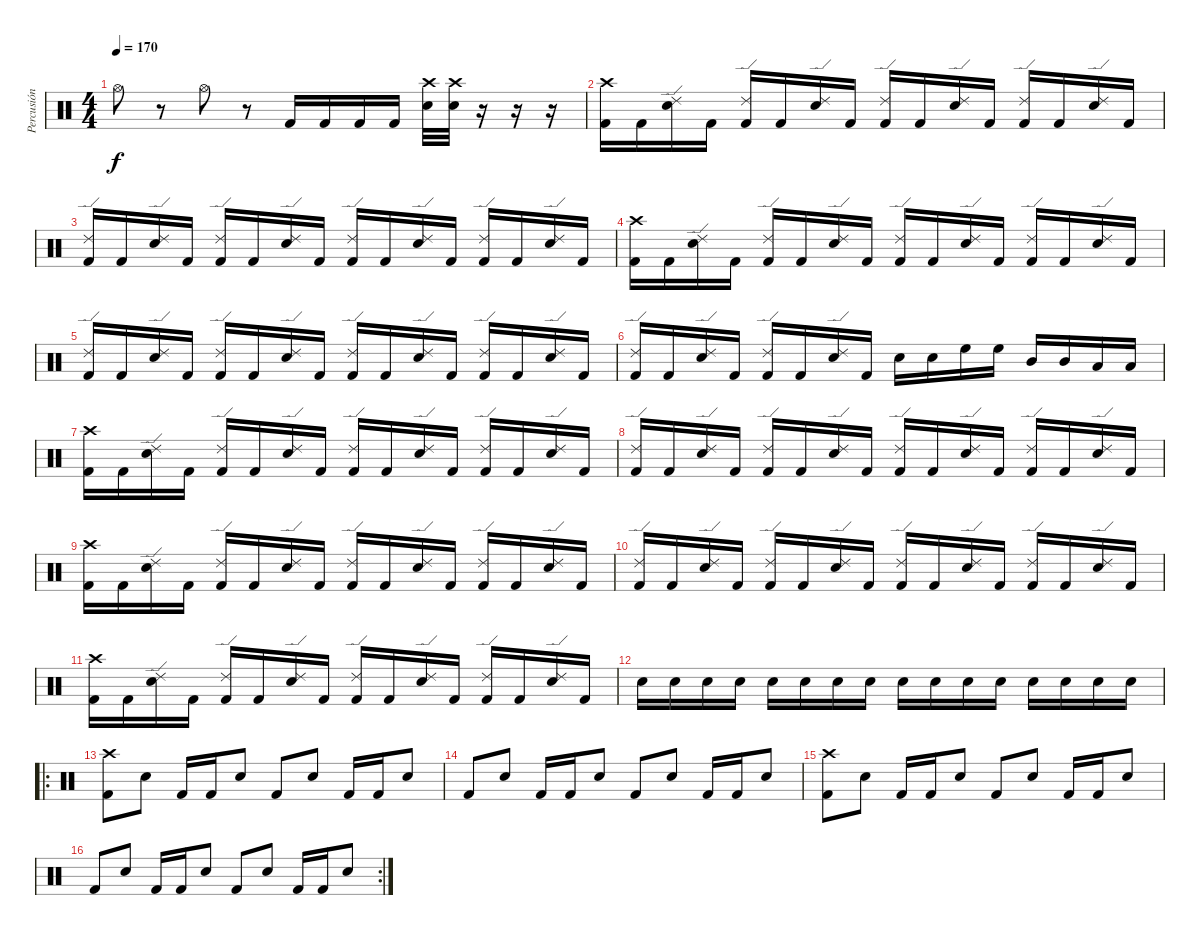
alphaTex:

\track ("Percusión" "Percusión") {instrument percussion}
\staff {score}
\articulation defaults
\ts (4 4)
\tempo 170
\clef neutral
\ks c "Hi-Hat (open)".8{dy f}
r.8 "Hi-Hat (open)".8 r.8 "Kick (hit) 2".16 "Kick (hit) 2".16 "Kick (hit) 2".16 "Kick (hit) 2".16 ("Crash high (hit)" "Electric Snare (hit)").32 ("Crash high (hit)" "Electric Snare (hit)").32 r.16 r.16 r.16 |
("Crash high (hit)" "Kick (hit) 2").16 "Kick (hit) 2".16 ("Ride (edge) 2" "Electric Snare (hit)").16 "Kick (hit) 2".16 ("Ride (edge) 2" "Kick (hit) 2").16 "Kick (hit) 2".16 ("Ride (edge) 2" "Electric Snare (hit)").16 "Kick (hit) 2".16 ("Ride (edge) 2" "Kick (hit) 2").16 "Kick (hit) 2".16 ("Ride (edge) 2" "Electric Snare (hit)").16 "Kick (hit) 2".16 ("Ride (edge) 2" "Kick (hit) 2").16 "Kick (hit) 2".16 ("Ride (edge) 2" "Electric Snare (hit)").16 "Kick (hit) 2".16 |
("Ride (edge) 2" "Kick (hit) 2").16 "Kick (hit) 2".16 ("Ride (edge) 2" "Electric Snare (hit)").16 "Kick (hit) 2".16 ("Ride (edge) 2" "Kick (hit) 2").16 "Kick (hit) 2".16 ("Ride (edge) 2" "Electric Snare (hit)").16 "Kick (hit) 2".16 ("Ride (edge) 2" "Kick (hit) 2").16 "Kick (hit) 2".16 ("Ride (edge) 2" "Electric Snare (hit)").16 "Kick (hit) 2".16 ("Ride (edge) 2" "Kick (hit) 2").16 "Kick (hit) 2".16 ("Ride (edge) 2" "Electric Snare (hit)").16 "Kick (hit) 2".16 |
("Crash high (hit)" "Kick (hit) 2").16 "Kick (hit) 2".16 ("Ride (edge) 2" "Electric Snare (hit)").16 "Kick (hit) 2".16 ("Ride (edge) 2" "Kick (hit) 2").16 "Kick (hit) 2".16 ("Ride (edge) 2" "Electric Snare (hit)").16 "Kick (hit) 2".16 ("Ride (edge) 2" "Kick (hit) 2").16 "Kick (hit) 2".16 ("Ride (edge) 2" "Electric Snare (hit)").16 "Kick (hit) 2".16 ("Ride (edge) 2" "Kick (hit) 2").16 "Kick (hit) 2".16 ("Ride (edge) 2" "Electric Snare (hit)").16 "Kick (hit) 2".16 |
("Ride (edge) 2" "Kick (hit) 2").16 "Kick (hit) 2".16 ("Ride (edge) 2" "Electric Snare (hit)").16 "Kick (hit) 2".16 ("Ride (edge) 2" "Kick (hit) 2").16 "Kick (hit) 2".16 ("Ride (edge) 2" "Electric Snare (hit)").16 "Kick (hit) 2".16 ("Ride (edge) 2" "Kick (hit) 2").16 "Kick (hit) 2".16 ("Ride (edge) 2" "Electric Snare (hit)").16 "Kick (hit) 2".16 ("Ride (edge) 2" "Kick (hit) 2").16 "Kick (hit) 2".16 ("Ride (edge) 2" "Electric Snare (hit)").16 "Kick (hit) 2".16 |
("Ride (edge) 2" "Kick (hit) 2").16 "Kick (hit) 2".16 ("Ride (edge) 2" "Electric Snare (hit)").16 "Kick (hit) 2".16 ("Ride (edge) 2" "Kick (hit) 2").16 "Kick (hit) 2".16 ("Ride (edge) 2" "Electric Snare (hit)").16 "Kick (hit) 2".16 "Electric Snare (hit)".16 "Electric Snare (hit)".16 "High Floor Tom (hit)".16 "High Floor Tom (hit)".16 "Mid Tom (hit)".16 "Mid Tom (hit)".16 "Low Tom (hit)".16 "Low Tom (hit)".16 |
("Crash high (hit)" "Kick (hit) 2").16 "Kick (hit) 2".16 ("Ride (edge) 2" "Electric Snare (hit)").16 "Kick (hit) 2".16 ("Ride (edge) 2" "Kick (hit) 2").16 "Kick (hit) 2".16 ("Ride (edge) 2" "Electric Snare (hit)").16 "Kick (hit) 2".16 ("Ride (edge) 2" "Kick (hit) 2").16 "Kick (hit) 2".16 ("Ride (edge) 2" "Electric Snare (hit)").16 "Kick (hit) 2".16 ("Ride (edge) 2" "Kick (hit) 2").16 "Kick (hit) 2".16 ("Ride (edge) 2" "Electric Snare (hit)").16 "Kick (hit) 2".16 |
("Ride (edge) 2" "Kick (hit) 2").16 "Kick (hit) 2".16 ("Ride (edge) 2" "Electric Snare (hit)").16 "Kick (hit) 2".16 ("Ride (edge) 2" "Kick (hit) 2").16 "Kick (hit) 2".16 ("Ride (edge) 2" "Electric Snare (hit)").16 "Kick (hit) 2".16 ("Ride (edge) 2" "Kick (hit) 2").16 "Kick (hit) 2".16 ("Ride (edge) 2" "Electric Snare (hit)").16 "Kick (hit) 2".16 ("Ride (edge) 2" "Kick (hit) 2").16 "Kick (hit) 2".16 ("Ride (edge) 2" "Electric Snare (hit)").16 "Kick (hit) 2".16 |
("Crash high (hit)" "Kick (hit) 2").16 "Kick (hit) 2".16 ("Ride (edge) 2" "Electric Snare (hit)").16 "Kick (hit) 2".16 ("Ride (edge) 2" "Kick (hit) 2").16 "Kick (hit) 2".16 ("Ride (edge) 2" "Electric Snare (hit)").16 "Kick (hit) 2".16 ("Ride (edge) 2" "Kick (hit) 2").16 "Kick (hit) 2".16 ("Ride (edge) 2" "Electric Snare (hit)").16 "Kick (hit) 2".16 ("Ride (edge) 2" "Kick (hit) 2").16 "Kick (hit) 2".16 ("Ride (edge) 2" "Electric Snare (hit)").16 "Kick (hit) 2".16 |
("Ride (edge) 2" "Kick (hit) 2").16 "Kick (hit) 2".16 ("Ride (edge) 2" "Electric Snare (hit)").16 "Kick (hit) 2".16 ("Ride (edge) 2" "Kick (hit) 2").16 "Kick (hit) 2".16 ("Ride (edge) 2" "Electric Snare (hit)").16 "Kick (hit) 2".16 ("Ride (edge) 2" "Kick (hit) 2").16 "Kick (hit) 2".16 ("Ride (edge) 2" "Electric Snare (hit)").16 "Kick (hit) 2".16 ("Ride (edge) 2" "Kick (hit) 2").16 "Kick (hit) 2".16 ("Ride (edge) 2" "Electric Snare (hit)").16 "Kick (hit) 2".16 |
("Crash high (hit)" "Kick (hit) 2").16 "Kick (hit) 2".16 ("Ride (edge) 2" "Electric Snare (hit)").16 "Kick (hit) 2".16 ("Ride (edge) 2" "Kick (hit) 2").16 "Kick (hit) 2".16 ("Ride (edge) 2" "Electric Snare (hit)").16 "Kick (hit) 2".16 ("Ride (edge) 2" "Kick (hit) 2").16 "Kick (hit) 2".16 ("Ride (edge) 2" "Electric Snare (hit)").16 "Kick (hit) 2".16 ("Ride (edge) 2" "Kick (hit) 2").16 "Kick (hit) 2".16 ("Ride (edge) 2" "Electric Snare (hit)").16 "Kick (hit) 2".16 |
"Electric Snare (hit)".16 "Electric Snare (hit)".16 "Electric Snare (hit)".16 "Electric Snare (hit)".16 "Electric Snare (hit)".16 "Electric Snare (hit)".16 "Electric Snare (hit)".16 "Electric Snare (hit)".16 "Electric Snare (hit)".16 "Electric Snare (hit)".16 "Electric Snare (hit)".16 "Electric Snare (hit)".16 "Electric Snare (hit)".16 "Electric Snare (hit)".16 "Electric Snare (hit)".16 "Electric Snare (hit)".16 |
\ro
("Crash high (hit)" "Kick (hit) 2").8 "Electric Snare (hit)".8 "Kick (hit) 2".16 "Kick (hit) 2".16 "Electric Snare (hit)".8 "Kick (hit) 2".8 "Electric Snare (hit)".8 "Kick (hit) 2".16 "Kick (hit) 2".16 "Electric Snare (hit)".8 |
"Kick (hit) 2".8 "Electric Snare (hit)".8 "Kick (hit) 2".16 "Kick (hit) 2".16 "Electric Snare (hit)".8 "Kick (hit) 2".8 "Electric Snare (hit)".8 "Kick (hit) 2".16 "Kick (hit) 2".16 "Electric Snare (hit)".8 |
("Crash high (hit)" "Kick (hit) 2").8 "Electric Snare (hit)".8 "Kick (hit) 2".16 "Kick (hit) 2".16 "Electric Snare (hit)".8 "Kick (hit) 2".8 "Electric Snare (hit)".8 "Kick (hit) 2".16 "Kick (hit) 2".16 "Electric Snare (hit)".8 |
\rc 2 "Kick (hit) 2".8 "Electric Snare (hit)".8 "Kick (hit) 2".16 "Kick (hit) 2".16 "Electric Snare (hit)".8 "Kick (hit) 2".8 "Electric Snare (hit)".8 "Kick (hit) 2".16 "Kick (hit) 2".16 "Electric Snare (hit)".8
